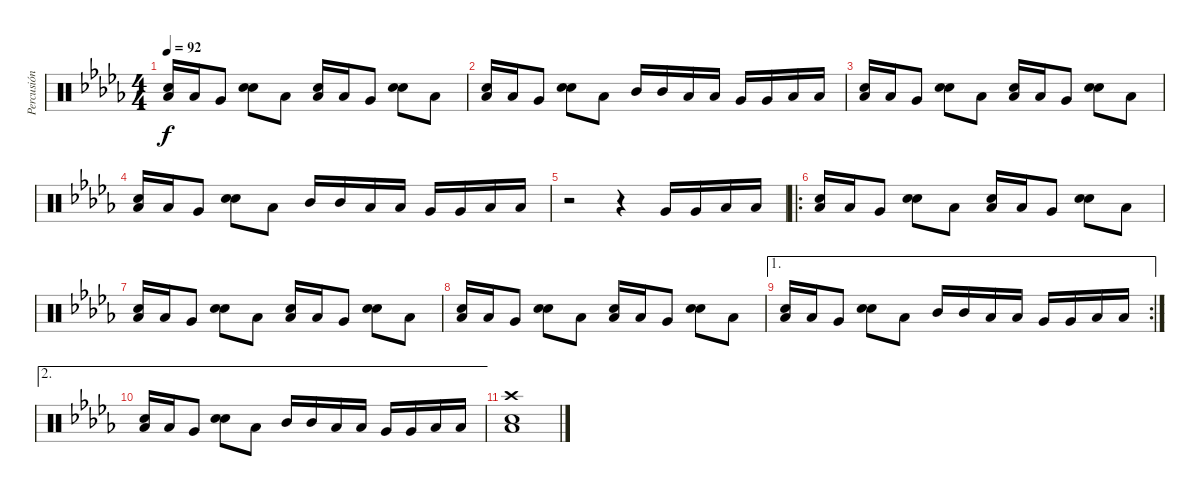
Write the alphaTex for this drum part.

\track ("Percusión" "Percusión") {instrument percussion}
\staff {score}
\articulation defaults
\ts (4 4)
\tempo 92
\clef neutral
\ks db
("Low Tom (hit)" "Snare (hit) 2").16{dy f} "Low Tom (hit)".16 "Very Low Tom (hit)".8 ("Electric Snare (hit)" "Snare (hit) 2").8 "Low Tom (hit)".8 ("Low Tom (hit)" "Snare (hit) 2").16 "Low Tom (hit)".16 "Very Low Tom (hit)".8 ("Electric Snare (hit)" "Snare (hit) 2").8 "Low Tom (hit)".8 |
("Low Tom (hit)" "Snare (hit) 2").16 "Low Tom (hit)".16 "Very Low Tom (hit)".8 ("Electric Snare (hit)" "Snare (hit) 2").8 "Low Tom (hit)".8 "Mid Tom (hit)".16 "Mid Tom (hit)".16 "Low Tom (hit)".16 "Low Tom (hit)".16 "Very Low Tom (hit)".16 "Very Low Tom (hit)".16 "Low Floor Tom (hit)".16 "Low Floor Tom (hit)".16 |
("Low Tom (hit)" "Snare (hit) 2").16 "Low Tom (hit)".16 "Very Low Tom (hit)".8 ("Electric Snare (hit)" "Snare (hit) 2").8 "Low Tom (hit)".8 ("Low Tom (hit)" "Snare (hit) 2").16 "Low Tom (hit)".16 "Very Low Tom (hit)".8 ("Electric Snare (hit)" "Snare (hit) 2").8 "Low Tom (hit)".8 |
("Low Tom (hit)" "Snare (hit) 2").16 "Low Tom (hit)".16 "Very Low Tom (hit)".8 ("Electric Snare (hit)" "Snare (hit) 2").8 "Low Tom (hit)".8 "Mid Tom (hit)".16 "Mid Tom (hit)".16 "Low Tom (hit)".16 "Low Tom (hit)".16 "Very Low Tom (hit)".16 "Very Low Tom (hit)".16 "Low Floor Tom (hit)".16 "Low Floor Tom (hit)".16 |
r.2 r.4 "Very Low Tom (hit)".16 "Very Low Tom (hit)".16 "Low Floor Tom (hit)".16 "Low Floor Tom (hit)".16 |
\ro
("Low Tom (hit)" "Snare (hit) 2").16 "Low Tom (hit)".16 "Very Low Tom (hit)".8 ("Electric Snare (hit)" "Snare (hit) 2").8 "Low Tom (hit)".8 ("Low Tom (hit)" "Snare (hit) 2").16 "Low Tom (hit)".16 "Very Low Tom (hit)".8 ("Electric Snare (hit)" "Snare (hit) 2").8 "Low Tom (hit)".8 |
("Low Tom (hit)" "Snare (hit) 2").16 "Low Tom (hit)".16 "Very Low Tom (hit)".8 ("Electric Snare (hit)" "Snare (hit) 2").8 "Low Tom (hit)".8 ("Low Tom (hit)" "Snare (hit) 2").16 "Low Tom (hit)".16 "Very Low Tom (hit)".8 ("Electric Snare (hit)" "Snare (hit) 2").8 "Low Tom (hit)".8 |
("Low Tom (hit)" "Snare (hit) 2").16 "Low Tom (hit)".16 "Very Low Tom (hit)".8 ("Electric Snare (hit)" "Snare (hit) 2").8 "Low Tom (hit)".8 ("Low Tom (hit)" "Snare (hit) 2").16 "Low Tom (hit)".16 "Very Low Tom (hit)".8 ("Electric Snare (hit)" "Snare (hit) 2").8 "Low Tom (hit)".8 |
\ae 1
\rc 2
("Low Tom (hit)" "Snare (hit) 2").16 "Low Tom (hit)".16 "Very Low Tom (hit)".8 ("Electric Snare (hit)" "Snare (hit) 2").8 "Low Tom (hit)".8 "Mid Tom (hit)".16 "Mid Tom (hit)".16 "Low Tom (hit)".16 "Low Tom (hit)".16 "Very Low Tom (hit)".16 "Very Low Tom (hit)".16 "Low Floor Tom (hit)".16 "Low Floor Tom (hit)".16 |
\ae 2
("Low Tom (hit)" "Snare (hit) 2").16 "Low Tom (hit)".16 "Very Low Tom (hit)".8 ("Electric Snare (hit)" "Snare (hit) 2").8 "Low Tom (hit)".8 "Mid Tom (hit)".16 "Mid Tom (hit)".16 "Low Tom (hit)".16 "Low Tom (hit)".16 "Very Low Tom (hit)".16 "Very Low Tom (hit)".16 "Low Floor Tom (hit)".16 "Low Floor Tom (hit)".16 |
("Crash high (hit)" "Low Tom (hit)" "Snare (hit) 2").1
